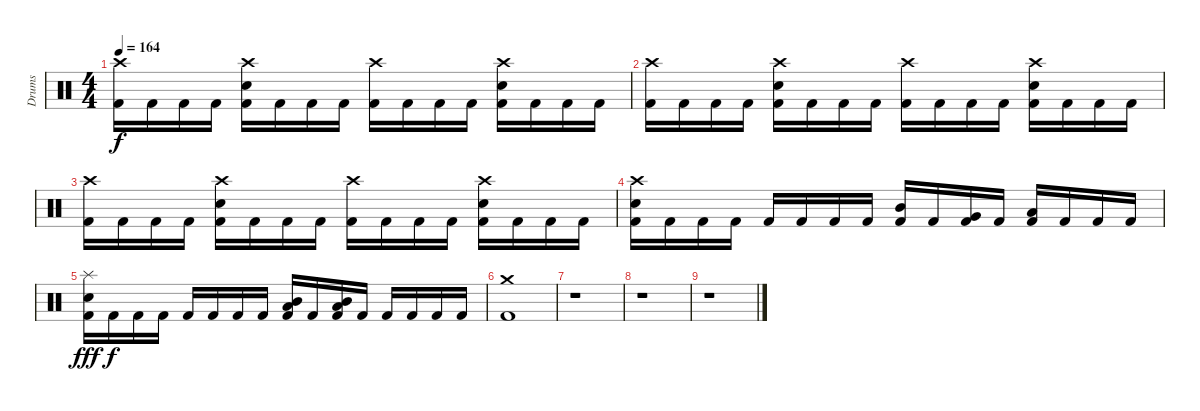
\track ("Drums" "Drums") {instrument percussion}
\staff {score}
\articulation defaults
\ts (4 4)
\tempo 164
\clef neutral
\ks c
("Crash high (hit)" "Kick (hit) 2").16{dy f} "Kick (hit) 2".16 "Kick (hit) 2".16 "Kick (hit) 2".16 ("Crash high (hit)" "Electric Snare (hit)" "Kick (hit) 2").16 "Kick (hit) 2".16 "Kick (hit) 2".16 "Kick (hit) 2".16 ("Crash high (hit)" "Kick (hit) 2").16 "Kick (hit) 2".16 "Kick (hit) 2".16 "Kick (hit) 2".16 ("Crash high (hit)" "Electric Snare (hit)" "Kick (hit) 2").16 "Kick (hit) 2".16 "Kick (hit) 2".16 "Kick (hit) 2".16 |
("Crash high (hit)" "Kick (hit) 2").16 "Kick (hit) 2".16 "Kick (hit) 2".16 "Kick (hit) 2".16 ("Crash high (hit)" "Electric Snare (hit)" "Kick (hit) 2").16 "Kick (hit) 2".16 "Kick (hit) 2".16 "Kick (hit) 2".16 ("Crash high (hit)" "Kick (hit) 2").16 "Kick (hit) 2".16 "Kick (hit) 2".16 "Kick (hit) 2".16 ("Crash high (hit)" "Electric Snare (hit)" "Kick (hit) 2").16 "Kick (hit) 2".16 "Kick (hit) 2".16 "Kick (hit) 2".16 |
("Crash high (hit)" "Kick (hit) 2").16 "Kick (hit) 2".16 "Kick (hit) 2".16 "Kick (hit) 2".16 ("Crash high (hit)" "Electric Snare (hit)" "Kick (hit) 2").16 "Kick (hit) 2".16 "Kick (hit) 2".16 "Kick (hit) 2".16 ("Crash high (hit)" "Kick (hit) 2").16 "Kick (hit) 2".16 "Kick (hit) 2".16 "Kick (hit) 2".16 ("Crash high (hit)" "Electric Snare (hit)" "Kick (hit) 2").16 "Kick (hit) 2".16 "Kick (hit) 2".16 "Kick (hit) 2".16 |
("Crash high (hit)" "Electric Snare (hit)" "Kick (hit) 2").16 "Kick (hit) 2".16 "Kick (hit) 2".16 "Kick (hit) 2".16 "Kick (hit) 2".16 "Kick (hit) 2".16 "Kick (hit) 2".16 "Kick (hit) 2".16 ("Mid Tom (hit)" "Kick (hit) 2").16 "Kick (hit) 2".16 ("Very Low Tom (hit)" "Kick (hit) 2").16 "Kick (hit) 2".16 ("Low Tom (hit)" "Kick (hit) 2").16 "Kick (hit) 2".16 "Kick (hit) 2".16 "Kick (hit) 2".16 |
("Splash (hit)" "Electric Snare (hit)" "Kick (hit) 2").16{dy fff} "Kick (hit) 2".16{dy f} "Kick (hit) 2".16 "Kick (hit) 2".16 "Kick (hit) 2".16 "Kick (hit) 2".16 "Kick (hit) 2".16 "Kick (hit) 2".16 ("Mid Tom (hit)" "Low Tom (hit)" "Kick (hit) 2").16 "Kick (hit) 2".16 ("Mid Tom (hit)" "Low Tom (hit)" "Kick (hit) 2").16 "Kick (hit) 2".16 "Kick (hit) 2".16 "Kick (hit) 2".16 "Kick (hit) 2".16 "Kick (hit) 2".16 |
("Crash medium (hit)" "Kick (hit) 2").1 |
r.1 |
r.1 |
r.1
